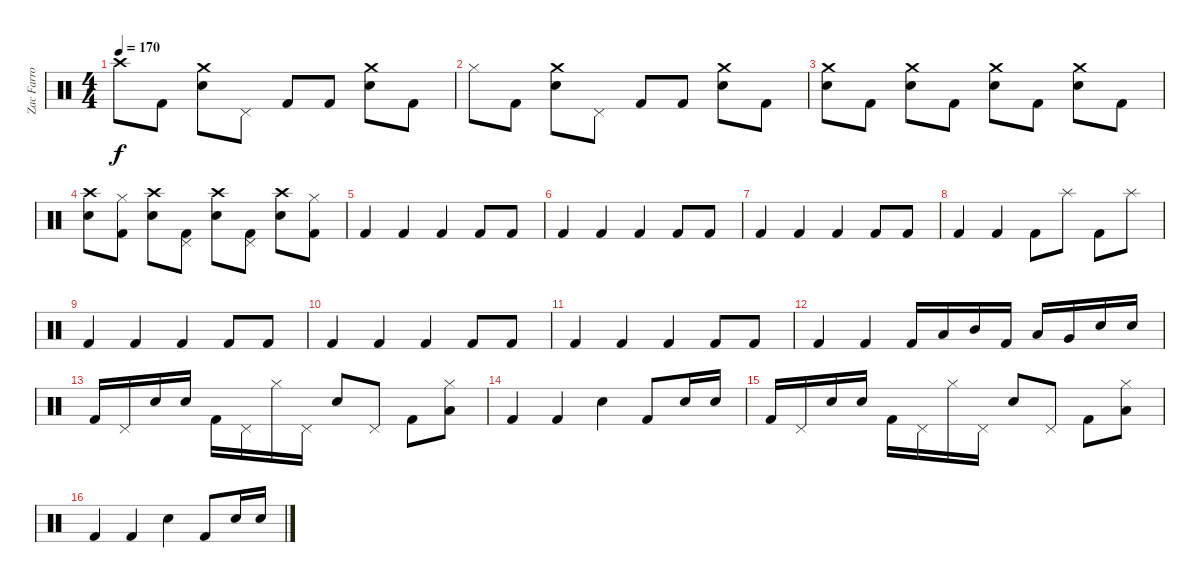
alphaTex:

\track ("Zac Farro Drums" "Zac Farro ") {instrument percussion}
\staff {score}
\articulation defaults
\ts (4 4)
\tempo 170
\clef neutral
\ks c "Crash high (hit)".8{dy f} "Kick (hit) 2".8
("Crash medium (hit)" "Electric Snare (hit)").8 "Pedal Hi-Hat (hit)".8 "Kick (hit) 2".8 "Kick (hit) 2".8 ("Crash medium (hit)" "Electric Snare (hit)").8 "Kick (hit) 2".8 |
"Hi-Hat (closed)".8 "Kick (hit) 2".8 ("Crash medium (hit)" "Electric Snare (hit)").8 "Pedal Hi-Hat (hit)".8 "Kick (hit) 2".8 "Kick (hit) 2".8 ("Crash medium (hit)" "Electric Snare (hit)").8 "Kick (hit) 2".8 |
("Crash medium (hit)" "Electric Snare (hit)").8 "Kick (hit) 2".8 ("Crash medium (hit)" "Electric Snare (hit)").8 "Kick (hit) 2".8 ("Crash medium (hit)" "Electric Snare (hit)").8 "Kick (hit) 2".8 ("Crash medium (hit)" "Electric Snare (hit)").8 "Kick (hit) 2".8 |
("Crash high (hit)" "Electric Snare (hit)").8 ("Hi-Hat (closed)" "Kick (hit) 2").8 ("Crash high (hit)" "Electric Snare (hit)").8 ("Pedal Hi-Hat (hit)" "Kick (hit) 2").8 ("Crash high (hit)" "Electric Snare (hit)").8 ("Pedal Hi-Hat (hit)" "Kick (hit) 2").8 ("Crash high (hit)" "Electric Snare (hit)").8 ("Hi-Hat (closed)" "Kick (hit) 2").8 |
"Kick (hit) 2".4 "Kick (hit) 2".4 "Kick (hit) 2".4 "Kick (hit) 2".8 "Kick (hit) 2".8 |
"Kick (hit) 2".4 "Kick (hit) 2".4 "Kick (hit) 2".4 "Kick (hit) 2".8 "Kick (hit) 2".8 |
"Kick (hit) 2".4 "Kick (hit) 2".4 "Kick (hit) 2".4 "Kick (hit) 2".8 "Kick (hit) 2".8 |
"Kick (hit) 2".4 "Kick (hit) 2".4 "Kick (hit) 2".8 "Splash (hit)".8 "Kick (hit) 2".8 "Splash (hit)".8 |
"Kick (hit) 2".4 "Kick (hit) 2".4 "Kick (hit) 2".4 "Kick (hit) 2".8 "Kick (hit) 2".8 |
"Kick (hit) 2".4 "Kick (hit) 2".4 "Kick (hit) 2".4 "Kick (hit) 2".8 "Kick (hit) 2".8 |
"Kick (hit) 2".4 "Kick (hit) 2".4 "Kick (hit) 2".4 "Kick (hit) 2".8 "Kick (hit) 2".8 |
"Kick (hit) 2".4 "Kick (hit) 2".4 "Kick (hit) 2".16 "Low Tom (hit)".16 "Mid Tom (hit)".16 "Kick (hit) 2".16 "Low Floor Tom (hit)".16 "Very Low Tom (hit)".16 "Electric Snare (hit)".16 "Electric Snare (hit)".16 |
"Kick (hit) 2".16 "Pedal Hi-Hat (hit)".16 "Electric Snare (hit)".16 "Electric Snare (hit)".16 "Kick (hit) 2".16 "Pedal Hi-Hat (hit)".16 "Hi-Hat (closed)".16 "Pedal Hi-Hat (hit)".16 "Electric Snare (hit)".8 "Pedal Hi-Hat (hit)".8 "Kick (hit) 2".8 ("Hi-Hat (closed)" "Low Tom (hit)").8 |
"Kick (hit) 2".4 "Kick (hit) 2".4 "Electric Snare (hit)".4 "Kick (hit) 2".8 "Electric Snare (hit)".16 "Electric Snare (hit)".16 |
"Kick (hit) 2".16 "Pedal Hi-Hat (hit)".16 "Electric Snare (hit)".16 "Electric Snare (hit)".16 "Kick (hit) 2".16 "Pedal Hi-Hat (hit)".16 "Hi-Hat (closed)".16 "Pedal Hi-Hat (hit)".16 "Electric Snare (hit)".8 "Pedal Hi-Hat (hit)".8 "Kick (hit) 2".8 ("Hi-Hat (closed)" "Low Tom (hit)").8 |
"Kick (hit) 2".4 "Kick (hit) 2".4 "Electric Snare (hit)".4 "Kick (hit) 2".8 "Electric Snare (hit)".16 "Electric Snare (hit)".16
